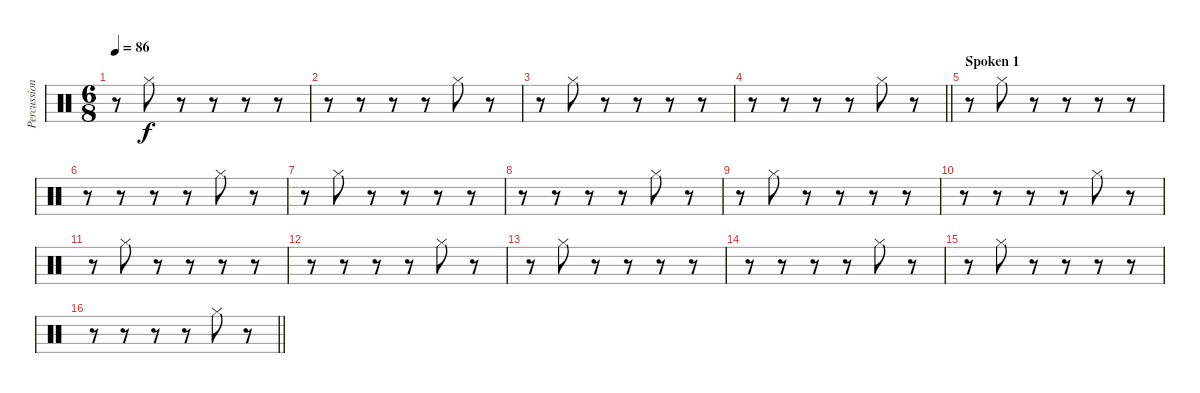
\track ("Percussion" "Percussion") {instrument percussion}
\staff {score}
\articulation defaults
\ts (6 8)
\tempo 86
\clef neutral
\ks c
r.8{dy f} "Hi-Hat (closed)".8 r.8 r.8 r.8 r.8 |
r.8 r.8 r.8 r.8 "Hi-Hat (closed)".8 r.8 |
r.8 "Hi-Hat (closed)".8 r.8 r.8 r.8 r.8 |
\barLineRight lightlight
r.8 r.8 r.8 r.8 "Hi-Hat (closed)".8 r.8 |
\section ("" "Spoken 1")
r.8 "Hi-Hat (closed)".8 r.8 r.8 r.8 r.8 |
r.8 r.8 r.8 r.8 "Hi-Hat (closed)".8 r.8 |
r.8 "Hi-Hat (closed)".8 r.8 r.8 r.8 r.8 |
r.8 r.8 r.8 r.8 "Hi-Hat (closed)".8 r.8 |
r.8 "Hi-Hat (closed)".8 r.8 r.8 r.8 r.8 |
r.8 r.8 r.8 r.8 "Hi-Hat (closed)".8 r.8 |
r.8 "Hi-Hat (closed)".8 r.8 r.8 r.8 r.8 |
r.8 r.8 r.8 r.8 "Hi-Hat (closed)".8 r.8 |
r.8 "Hi-Hat (closed)".8 r.8 r.8 r.8 r.8 |
r.8 r.8 r.8 r.8 "Hi-Hat (closed)".8 r.8 |
r.8 "Hi-Hat (closed)".8 r.8 r.8 r.8 r.8 |
\barLineRight lightlight
r.8 r.8 r.8 r.8 "Hi-Hat (closed)".8 r.8
